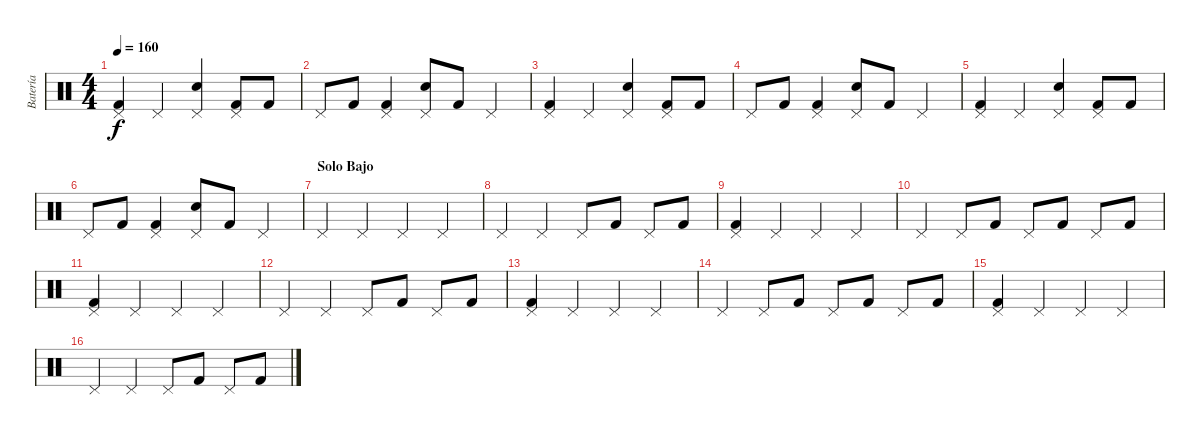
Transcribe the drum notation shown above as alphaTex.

\track ("Batería" "Batería") {instrument percussion}
\staff {score}
\articulation defaults
\ts (4 4)
\tempo 160
\clef neutral
\ks c
("Kick (hit) 2" "Pedal Hi-Hat (hit)").4{dy f} "Pedal Hi-Hat (hit)".4 ("Electric Snare (hit)" "Pedal Hi-Hat (hit)").4 ("Kick (hit) 2" "Pedal Hi-Hat (hit)").8 "Kick (hit) 2".8 |
"Pedal Hi-Hat (hit)".8 "Kick (hit) 2".8 ("Kick (hit) 2" "Pedal Hi-Hat (hit)").4 ("Electric Snare (hit)" "Pedal Hi-Hat (hit)").8 "Kick (hit) 2".8 "Pedal Hi-Hat (hit)".4 |
("Kick (hit) 2" "Pedal Hi-Hat (hit)").4 "Pedal Hi-Hat (hit)".4 ("Electric Snare (hit)" "Pedal Hi-Hat (hit)").4 ("Kick (hit) 2" "Pedal Hi-Hat (hit)").8 "Kick (hit) 2".8 |
"Pedal Hi-Hat (hit)".8 "Kick (hit) 2".8 ("Kick (hit) 2" "Pedal Hi-Hat (hit)").4 ("Electric Snare (hit)" "Pedal Hi-Hat (hit)").8 "Kick (hit) 2".8 "Pedal Hi-Hat (hit)".4 |
("Kick (hit) 2" "Pedal Hi-Hat (hit)").4 "Pedal Hi-Hat (hit)".4 ("Electric Snare (hit)" "Pedal Hi-Hat (hit)").4 ("Kick (hit) 2" "Pedal Hi-Hat (hit)").8 "Kick (hit) 2".8 |
"Pedal Hi-Hat (hit)".8 "Kick (hit) 2".8 ("Kick (hit) 2" "Pedal Hi-Hat (hit)").4 ("Electric Snare (hit)" "Pedal Hi-Hat (hit)").8 "Kick (hit) 2".8 "Pedal Hi-Hat (hit)".4 |
\section ("" "Solo Bajo")
"Pedal Hi-Hat (hit)".4 "Pedal Hi-Hat (hit)".4 "Pedal Hi-Hat (hit)".4 "Pedal Hi-Hat (hit)".4 |
"Pedal Hi-Hat (hit)".4 "Pedal Hi-Hat (hit)".4 "Pedal Hi-Hat (hit)".8 "Kick (hit) 2".8 "Pedal Hi-Hat (hit)".8 "Kick (hit) 2".8 |
("Kick (hit) 2" "Pedal Hi-Hat (hit)").4 "Pedal Hi-Hat (hit)".4 "Pedal Hi-Hat (hit)".4 "Pedal Hi-Hat (hit)".4 |
"Pedal Hi-Hat (hit)".4 "Pedal Hi-Hat (hit)".8 "Kick (hit) 2".8 "Pedal Hi-Hat (hit)".8 "Kick (hit) 2".8 "Pedal Hi-Hat (hit)".8 "Kick (hit) 2".8 |
("Kick (hit) 2" "Pedal Hi-Hat (hit)").4 "Pedal Hi-Hat (hit)".4 "Pedal Hi-Hat (hit)".4 "Pedal Hi-Hat (hit)".4 |
"Pedal Hi-Hat (hit)".4 "Pedal Hi-Hat (hit)".4 "Pedal Hi-Hat (hit)".8 "Kick (hit) 2".8 "Pedal Hi-Hat (hit)".8 "Kick (hit) 2".8 |
("Kick (hit) 2" "Pedal Hi-Hat (hit)").4 "Pedal Hi-Hat (hit)".4 "Pedal Hi-Hat (hit)".4 "Pedal Hi-Hat (hit)".4 |
"Pedal Hi-Hat (hit)".4 "Pedal Hi-Hat (hit)".8 "Kick (hit) 2".8 "Pedal Hi-Hat (hit)".8 "Kick (hit) 2".8 "Pedal Hi-Hat (hit)".8 "Kick (hit) 2".8 |
("Kick (hit) 2" "Pedal Hi-Hat (hit)").4 "Pedal Hi-Hat (hit)".4 "Pedal Hi-Hat (hit)".4 "Pedal Hi-Hat (hit)".4 |
"Pedal Hi-Hat (hit)".4 "Pedal Hi-Hat (hit)".4 "Pedal Hi-Hat (hit)".8 "Kick (hit) 2".8 "Pedal Hi-Hat (hit)".8 "Kick (hit) 2".8
